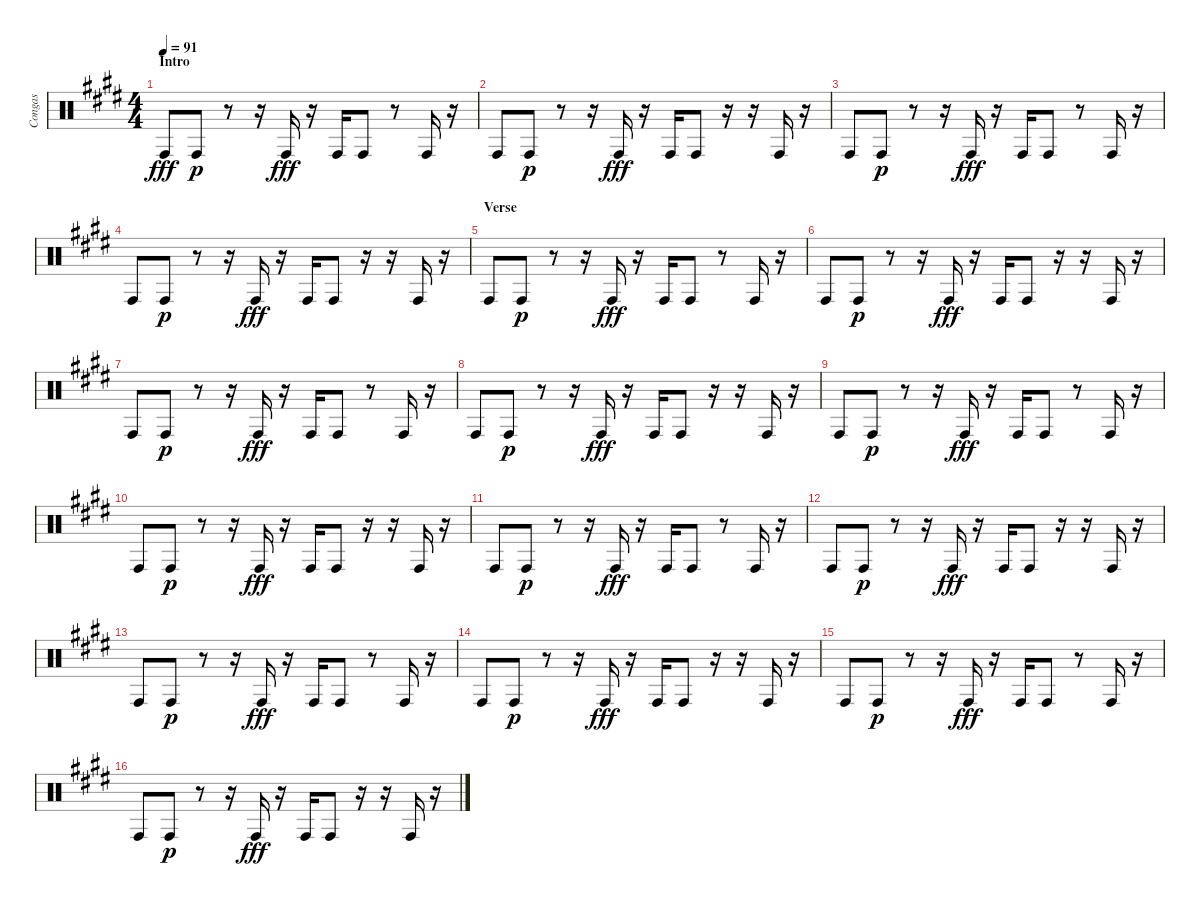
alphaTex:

\track ("Congas" "Congas") {instrument percussion}
\staff {score}
\articulation defaults
\ts (4 4)
\section ("" "Intro")
\tempo 91
\clef neutral
\ks e "Conga high (hit)".8{dy fff} "Conga high (hit)".8{dy p}
r.8 r.16 "Conga high (hit)".16{dy fff} r.16 "Conga high (hit)".16 "Conga high (hit)".8 r.8 "Conga high (hit)".16 r.16 |
"Conga high (hit)".8 "Conga high (hit)".8{dy p} r.8 r.16 "Conga high (hit)".16{dy fff} r.16 "Conga high (hit)".16 "Conga high (hit)".8 r.16 r.16 "Conga high (hit)".16 r.16 |
"Conga high (hit)".8 "Conga high (hit)".8{dy p} r.8 r.16 "Conga high (hit)".16{dy fff} r.16 "Conga high (hit)".16 "Conga high (hit)".8 r.8 "Conga high (hit)".16 r.16 |
"Conga high (hit)".8 "Conga high (hit)".8{dy p} r.8 r.16 "Conga high (hit)".16{dy fff} r.16 "Conga high (hit)".16 "Conga high (hit)".8 r.16 r.16 "Conga high (hit)".16 r.16 |
\section ("" "Verse")
"Conga high (hit)".8 "Conga high (hit)".8{dy p} r.8 r.16 "Conga high (hit)".16{dy fff} r.16 "Conga high (hit)".16 "Conga high (hit)".8 r.8 "Conga high (hit)".16 r.16 |
"Conga high (hit)".8 "Conga high (hit)".8{dy p} r.8 r.16 "Conga high (hit)".16{dy fff} r.16 "Conga high (hit)".16 "Conga high (hit)".8 r.16 r.16 "Conga high (hit)".16 r.16 |
"Conga high (hit)".8 "Conga high (hit)".8{dy p} r.8 r.16 "Conga high (hit)".16{dy fff} r.16 "Conga high (hit)".16 "Conga high (hit)".8 r.8 "Conga high (hit)".16 r.16 |
"Conga high (hit)".8 "Conga high (hit)".8{dy p} r.8 r.16 "Conga high (hit)".16{dy fff} r.16 "Conga high (hit)".16 "Conga high (hit)".8 r.16 r.16 "Conga high (hit)".16 r.16 |
"Conga high (hit)".8 "Conga high (hit)".8{dy p} r.8 r.16 "Conga high (hit)".16{dy fff} r.16 "Conga high (hit)".16 "Conga high (hit)".8 r.8 "Conga high (hit)".16 r.16 |
"Conga high (hit)".8 "Conga high (hit)".8{dy p} r.8 r.16 "Conga high (hit)".16{dy fff} r.16 "Conga high (hit)".16 "Conga high (hit)".8 r.16 r.16 "Conga high (hit)".16 r.16 |
"Conga high (hit)".8 "Conga high (hit)".8{dy p} r.8 r.16 "Conga high (hit)".16{dy fff} r.16 "Conga high (hit)".16 "Conga high (hit)".8 r.8 "Conga high (hit)".16 r.16 |
"Conga high (hit)".8 "Conga high (hit)".8{dy p} r.8 r.16 "Conga high (hit)".16{dy fff} r.16 "Conga high (hit)".16 "Conga high (hit)".8 r.16 r.16 "Conga high (hit)".16 r.16 |
"Conga high (hit)".8 "Conga high (hit)".8{dy p} r.8 r.16 "Conga high (hit)".16{dy fff} r.16 "Conga high (hit)".16 "Conga high (hit)".8 r.8 "Conga high (hit)".16 r.16 |
"Conga high (hit)".8 "Conga high (hit)".8{dy p} r.8 r.16 "Conga high (hit)".16{dy fff} r.16 "Conga high (hit)".16 "Conga high (hit)".8 r.16 r.16 "Conga high (hit)".16 r.16 |
"Conga high (hit)".8 "Conga high (hit)".8{dy p} r.8 r.16 "Conga high (hit)".16{dy fff} r.16 "Conga high (hit)".16 "Conga high (hit)".8 r.8 "Conga high (hit)".16 r.16 |
"Conga high (hit)".8 "Conga high (hit)".8{dy p} r.8 r.16 "Conga high (hit)".16{dy fff} r.16 "Conga high (hit)".16 "Conga high (hit)".8 r.16 r.16 "Conga high (hit)".16 r.16
